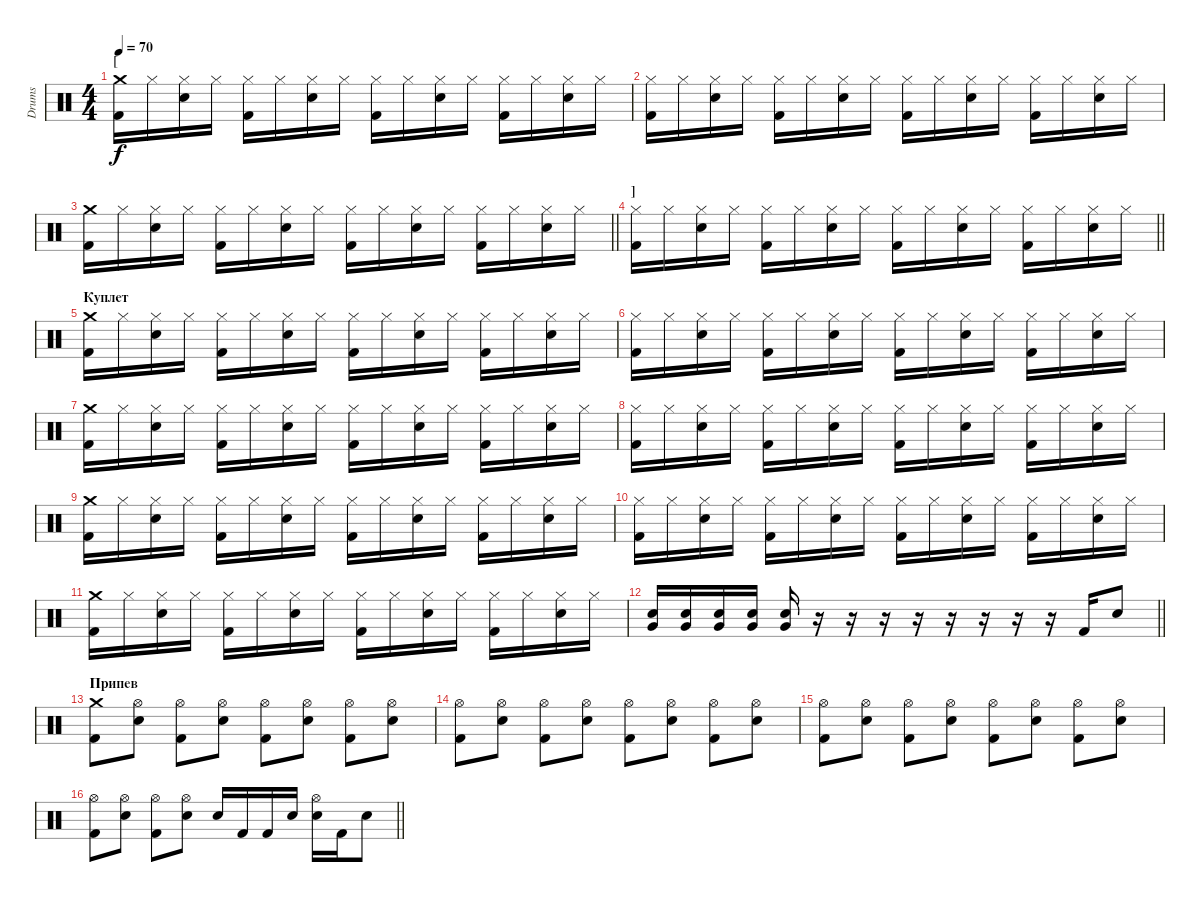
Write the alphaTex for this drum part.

\track ("Drums" "Drums") {instrument percussion}
\staff {score}
\articulation defaults
\ts (4 4)
\section ("" "[")
\tempo 70
\clef neutral
\ks c
("Crash medium (hit)" "Kick (hit) 2").16{dy f} "Hi-Hat (closed)".16 ("Hi-Hat (closed)" "Snare (hit) 2").16 "Hi-Hat (closed)".16 ("Hi-Hat (closed)" "Kick (hit) 2").16 "Hi-Hat (closed)".16 ("Hi-Hat (closed)" "Snare (hit) 2").16 "Hi-Hat (closed)".16 ("Hi-Hat (closed)" "Kick (hit) 2").16 "Hi-Hat (closed)".16 ("Hi-Hat (closed)" "Snare (hit) 2").16 "Hi-Hat (closed)".16 ("Hi-Hat (closed)" "Kick (hit) 2").16 "Hi-Hat (closed)".16 ("Hi-Hat (closed)" "Snare (hit) 2").16 "Hi-Hat (closed)".16 |
("Hi-Hat (closed)" "Kick (hit) 2").16 "Hi-Hat (closed)".16 ("Hi-Hat (closed)" "Snare (hit) 2").16 "Hi-Hat (closed)".16 ("Hi-Hat (closed)" "Kick (hit) 2").16 "Hi-Hat (closed)".16 ("Hi-Hat (closed)" "Snare (hit) 2").16 "Hi-Hat (closed)".16 ("Hi-Hat (closed)" "Kick (hit) 2").16 "Hi-Hat (closed)".16 ("Hi-Hat (closed)" "Snare (hit) 2").16 "Hi-Hat (closed)".16 ("Hi-Hat (closed)" "Kick (hit) 2").16 "Hi-Hat (closed)".16 ("Hi-Hat (closed)" "Snare (hit) 2").16 "Hi-Hat (closed)".16 |
\barLineRight lightlight
("Crash medium (hit)" "Kick (hit) 2").16 "Hi-Hat (closed)".16 ("Hi-Hat (closed)" "Snare (hit) 2").16 "Hi-Hat (closed)".16 ("Hi-Hat (closed)" "Kick (hit) 2").16 "Hi-Hat (closed)".16 ("Hi-Hat (closed)" "Snare (hit) 2").16 "Hi-Hat (closed)".16 ("Hi-Hat (closed)" "Kick (hit) 2").16 "Hi-Hat (closed)".16 ("Hi-Hat (closed)" "Snare (hit) 2").16 "Hi-Hat (closed)".16 ("Hi-Hat (closed)" "Kick (hit) 2").16 "Hi-Hat (closed)".16 ("Hi-Hat (closed)" "Snare (hit) 2").16 "Hi-Hat (closed)".16 |
\section ("" "]")
\barLineRight lightlight
("Hi-Hat (closed)" "Kick (hit) 2").16 "Hi-Hat (closed)".16 ("Hi-Hat (closed)" "Snare (hit) 2").16 "Hi-Hat (closed)".16 ("Hi-Hat (closed)" "Kick (hit) 2").16 "Hi-Hat (closed)".16 ("Hi-Hat (closed)" "Snare (hit) 2").16 "Hi-Hat (closed)".16 ("Hi-Hat (closed)" "Kick (hit) 2").16 "Hi-Hat (closed)".16 ("Hi-Hat (closed)" "Snare (hit) 2").16 "Hi-Hat (closed)".16 ("Hi-Hat (closed)" "Kick (hit) 2").16 "Hi-Hat (closed)".16 ("Hi-Hat (closed)" "Snare (hit) 2").16 "Hi-Hat (closed)".16 |
\section ("" "Куплет")
("Crash medium (hit)" "Kick (hit) 2").16 "Hi-Hat (closed)".16 ("Hi-Hat (closed)" "Snare (hit) 2").16 "Hi-Hat (closed)".16 ("Hi-Hat (closed)" "Kick (hit) 2").16 "Hi-Hat (closed)".16 ("Hi-Hat (closed)" "Snare (hit) 2").16 "Hi-Hat (closed)".16 ("Hi-Hat (closed)" "Kick (hit) 2").16 "Hi-Hat (closed)".16 ("Hi-Hat (closed)" "Snare (hit) 2").16 "Hi-Hat (closed)".16 ("Hi-Hat (closed)" "Kick (hit) 2").16 "Hi-Hat (closed)".16 ("Hi-Hat (closed)" "Snare (hit) 2").16 "Hi-Hat (closed)".16 |
("Hi-Hat (closed)" "Kick (hit) 2").16 "Hi-Hat (closed)".16 ("Hi-Hat (closed)" "Snare (hit) 2").16 "Hi-Hat (closed)".16 ("Hi-Hat (closed)" "Kick (hit) 2").16 "Hi-Hat (closed)".16 ("Hi-Hat (closed)" "Snare (hit) 2").16 "Hi-Hat (closed)".16 ("Hi-Hat (closed)" "Kick (hit) 2").16 "Hi-Hat (closed)".16 ("Hi-Hat (closed)" "Snare (hit) 2").16 "Hi-Hat (closed)".16 ("Hi-Hat (closed)" "Kick (hit) 2").16 "Hi-Hat (closed)".16 ("Hi-Hat (closed)" "Snare (hit) 2").16 "Hi-Hat (closed)".16 |
("Crash medium (hit)" "Kick (hit) 2").16 "Hi-Hat (closed)".16 ("Hi-Hat (closed)" "Snare (hit) 2").16 "Hi-Hat (closed)".16 ("Hi-Hat (closed)" "Kick (hit) 2").16 "Hi-Hat (closed)".16 ("Hi-Hat (closed)" "Snare (hit) 2").16 "Hi-Hat (closed)".16 ("Hi-Hat (closed)" "Kick (hit) 2").16 "Hi-Hat (closed)".16 ("Hi-Hat (closed)" "Snare (hit) 2").16 "Hi-Hat (closed)".16 ("Hi-Hat (closed)" "Kick (hit) 2").16 "Hi-Hat (closed)".16 ("Hi-Hat (closed)" "Snare (hit) 2").16 "Hi-Hat (closed)".16 |
("Hi-Hat (closed)" "Kick (hit) 2").16 "Hi-Hat (closed)".16 ("Hi-Hat (closed)" "Snare (hit) 2").16 "Hi-Hat (closed)".16 ("Hi-Hat (closed)" "Kick (hit) 2").16 "Hi-Hat (closed)".16 ("Hi-Hat (closed)" "Snare (hit) 2").16 "Hi-Hat (closed)".16 ("Hi-Hat (closed)" "Kick (hit) 2").16 "Hi-Hat (closed)".16 ("Hi-Hat (closed)" "Snare (hit) 2").16 "Hi-Hat (closed)".16 ("Hi-Hat (closed)" "Kick (hit) 2").16 "Hi-Hat (closed)".16 ("Hi-Hat (closed)" "Snare (hit) 2").16 "Hi-Hat (closed)".16 |
("Crash medium (hit)" "Kick (hit) 2").16 "Hi-Hat (closed)".16 ("Hi-Hat (closed)" "Snare (hit) 2").16 "Hi-Hat (closed)".16 ("Hi-Hat (closed)" "Kick (hit) 2").16 "Hi-Hat (closed)".16 ("Hi-Hat (closed)" "Snare (hit) 2").16 "Hi-Hat (closed)".16 ("Hi-Hat (closed)" "Kick (hit) 2").16 "Hi-Hat (closed)".16 ("Hi-Hat (closed)" "Snare (hit) 2").16 "Hi-Hat (closed)".16 ("Hi-Hat (closed)" "Kick (hit) 2").16 "Hi-Hat (closed)".16 ("Hi-Hat (closed)" "Snare (hit) 2").16 "Hi-Hat (closed)".16 |
("Hi-Hat (closed)" "Kick (hit) 2").16 "Hi-Hat (closed)".16 ("Hi-Hat (closed)" "Snare (hit) 2").16 "Hi-Hat (closed)".16 ("Hi-Hat (closed)" "Kick (hit) 2").16 "Hi-Hat (closed)".16 ("Hi-Hat (closed)" "Snare (hit) 2").16 "Hi-Hat (closed)".16 ("Hi-Hat (closed)" "Kick (hit) 2").16 "Hi-Hat (closed)".16 ("Hi-Hat (closed)" "Snare (hit) 2").16 "Hi-Hat (closed)".16 ("Hi-Hat (closed)" "Kick (hit) 2").16 "Hi-Hat (closed)".16 ("Hi-Hat (closed)" "Snare (hit) 2").16 "Hi-Hat (closed)".16 |
("Crash medium (hit)" "Kick (hit) 2").16 "Hi-Hat (closed)".16 ("Hi-Hat (closed)" "Snare (hit) 2").16 "Hi-Hat (closed)".16 ("Hi-Hat (closed)" "Kick (hit) 2").16 "Hi-Hat (closed)".16 ("Hi-Hat (closed)" "Snare (hit) 2").16 "Hi-Hat (closed)".16 ("Hi-Hat (closed)" "Kick (hit) 2").16 "Hi-Hat (closed)".16 ("Hi-Hat (closed)" "Snare (hit) 2").16 "Hi-Hat (closed)".16 ("Hi-Hat (closed)" "Kick (hit) 2").16 "Hi-Hat (closed)".16 ("Hi-Hat (closed)" "Snare (hit) 2").16 "Hi-Hat (closed)".16 |
\barLineRight lightlight
("Very Low Tom (hit)" "Snare (hit) 2").16 ("Very Low Tom (hit)" "Snare (hit) 2").16 ("Very Low Tom (hit)" "Snare (hit) 2").16 ("Very Low Tom (hit)" "Snare (hit) 2").16 ("Very Low Tom (hit)" "Snare (hit) 2").16 r.16 r.16 r.16 r.16 r.16 r.16 r.16 r.16 "Kick (hit) 2".16 "Snare (hit) 2".8 |
\section ("" "Припев")
("Crash medium (hit)" "Kick (hit) 2").8 ("Hi-Hat (open)" "Snare (hit) 2").8 ("Hi-Hat (open)" "Kick (hit) 2").8 ("Hi-Hat (open)" "Snare (hit) 2").8 ("Hi-Hat (open)" "Kick (hit) 2").8 ("Hi-Hat (open)" "Snare (hit) 2").8 ("Hi-Hat (open)" "Kick (hit) 2").8 ("Hi-Hat (open)" "Snare (hit) 2").8 |
("Hi-Hat (open)" "Kick (hit) 2").8 ("Hi-Hat (open)" "Snare (hit) 2").8 ("Hi-Hat (open)" "Kick (hit) 2").8 ("Hi-Hat (open)" "Snare (hit) 2").8 ("Hi-Hat (open)" "Kick (hit) 2").8 ("Hi-Hat (open)" "Snare (hit) 2").8 ("Hi-Hat (open)" "Kick (hit) 2").8 ("Hi-Hat (open)" "Snare (hit) 2").8 |
("Hi-Hat (open)" "Kick (hit) 2").8 ("Hi-Hat (open)" "Snare (hit) 2").8 ("Hi-Hat (open)" "Kick (hit) 2").8 ("Hi-Hat (open)" "Snare (hit) 2").8 ("Hi-Hat (open)" "Kick (hit) 2").8 ("Hi-Hat (open)" "Snare (hit) 2").8 ("Hi-Hat (open)" "Kick (hit) 2").8 ("Hi-Hat (open)" "Snare (hit) 2").8 |
\barLineRight lightlight
("Hi-Hat (open)" "Kick (hit) 2").8 ("Hi-Hat (open)" "Snare (hit) 2").8 ("Hi-Hat (open)" "Kick (hit) 2").8 ("Hi-Hat (open)" "Snare (hit) 2").8 "Snare (hit) 2".16 "Kick (hit) 2".16 "Kick (hit) 2".16 "Snare (hit) 2".16 ("Hi-Hat (open)" "Snare (hit) 2").16 "Kick (hit) 2".16 "Snare (hit) 2".8
